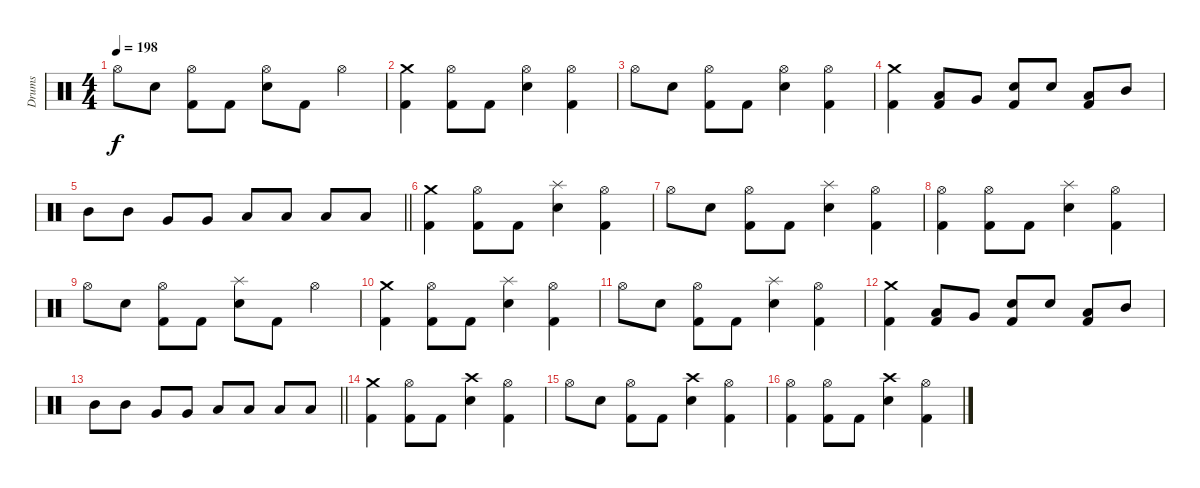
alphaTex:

\track ("Drums" "Drums") {instrument percussion}
\staff {score}
\articulation defaults
\ts (4 4)
\tempo 198
\clef neutral
\ks c "Hi-Hat (open)".8{dy f} "Snare (hit) 2".8
("Hi-Hat (open)" "Kick (hit) 2").8 "Kick (hit) 2".8 ("Hi-Hat (open)" "Snare (hit) 2").8 "Kick (hit) 2".8 "Hi-Hat (open)".4 |
("Crash medium (hit)" "Kick (hit) 2").4 ("Hi-Hat (open)" "Kick (hit) 2").8 "Kick (hit) 2".8 ("Hi-Hat (open)" "Snare (hit) 2").4 ("Hi-Hat (open)" "Kick (hit) 2").4 |
"Hi-Hat (open)".8 "Snare (hit) 2".8 ("Hi-Hat (open)" "Kick (hit) 2").8 "Kick (hit) 2".8 ("Hi-Hat (open)" "Snare (hit) 2").4 ("Hi-Hat (open)" "Kick (hit) 2").4 |
("Crash medium (hit)" "Kick (hit) 2").4 ("Low Floor Tom (hit)" "Kick (hit) 2").8 "Very Low Tom (hit)".8 ("Snare (hit) 2" "Kick (hit) 2").8 "Snare (hit) 2".8 ("Low Tom (hit)" "Kick (hit) 2").8 "Mid Tom (hit)".8 |
\barLineRight lightlight "Mid Tom (hit)".8 "Mid Tom (hit)".8 "Very Low Tom (hit)".8 "Very Low Tom (hit)".8 "Low Tom (hit)".8 "Low Tom (hit)".8 "Low Floor Tom (hit)".8 "Low Floor Tom (hit)".8
|
\section ("" "")
("Crash medium (hit)" "Kick (hit) 2").4 ("Hi-Hat (open)" "Kick (hit) 2").8 "Kick (hit) 2".8 ("Splash (hit)" "Snare (hit) 2").4 ("Hi-Hat (open)" "Kick (hit) 2").4 |
"Hi-Hat (open)".8 "Snare (hit) 2".8 ("Hi-Hat (open)" "Kick (hit) 2").8 "Kick (hit) 2".8 ("Splash (hit)" "Snare (hit) 2").4 ("Hi-Hat (open)" "Kick (hit) 2").4 |
("Hi-Hat (open)" "Kick (hit) 2").4 ("Hi-Hat (open)" "Kick (hit) 2").8 "Kick (hit) 2".8 ("Splash (hit)" "Snare (hit) 2").4 ("Hi-Hat (open)" "Kick (hit) 2").4 |
"Hi-Hat (open)".8 "Snare (hit) 2".8 ("Hi-Hat (open)" "Kick (hit) 2").8 "Kick (hit) 2".8 ("Splash (hit)" "Snare (hit) 2").8 "Kick (hit) 2".8 "Hi-Hat (open)".4 |
("Crash medium (hit)" "Kick (hit) 2").4 ("Hi-Hat (open)" "Kick (hit) 2").8 "Kick (hit) 2".8 ("Splash (hit)" "Snare (hit) 2").4 ("Hi-Hat (open)" "Kick (hit) 2").4 |
"Hi-Hat (open)".8 "Snare (hit) 2".8 ("Hi-Hat (open)" "Kick (hit) 2").8 "Kick (hit) 2".8 ("Splash (hit)" "Snare (hit) 2").4 ("Hi-Hat (open)" "Kick (hit) 2").4 |
("Crash medium (hit)" "Kick (hit) 2").4 ("Low Floor Tom (hit)" "Kick (hit) 2").8 "Very Low Tom (hit)".8 ("Snare (hit) 2" "Kick (hit) 2").8 "Snare (hit) 2".8 ("Low Tom (hit)" "Kick (hit) 2").8 "Mid Tom (hit)".8 |
\barLineRight lightlight "Mid Tom (hit)".8 "Mid Tom (hit)".8 "Very Low Tom (hit)".8 "Very Low Tom (hit)".8 "Low Tom (hit)".8 "Low Tom (hit)".8 "Low Floor Tom (hit)".8 "Low Floor Tom (hit)".8
|
\section ("" "")
("Crash medium (hit)" "Kick (hit) 2").4 ("Hi-Hat (open)" "Kick (hit) 2").8 "Kick (hit) 2".8 ("Crash high (hit)" "Snare (hit) 2").4 ("Hi-Hat (open)" "Kick (hit) 2").4 |
"Hi-Hat (open)".8 "Snare (hit) 2".8 ("Hi-Hat (open)" "Kick (hit) 2").8 "Kick (hit) 2".8 ("Crash high (hit)" "Snare (hit) 2").4 ("Hi-Hat (open)" "Kick (hit) 2").4 |
("Hi-Hat (open)" "Kick (hit) 2").4 ("Hi-Hat (open)" "Kick (hit) 2").8 "Kick (hit) 2".8 ("Crash high (hit)" "Snare (hit) 2").4 ("Hi-Hat (open)" "Kick (hit) 2").4
